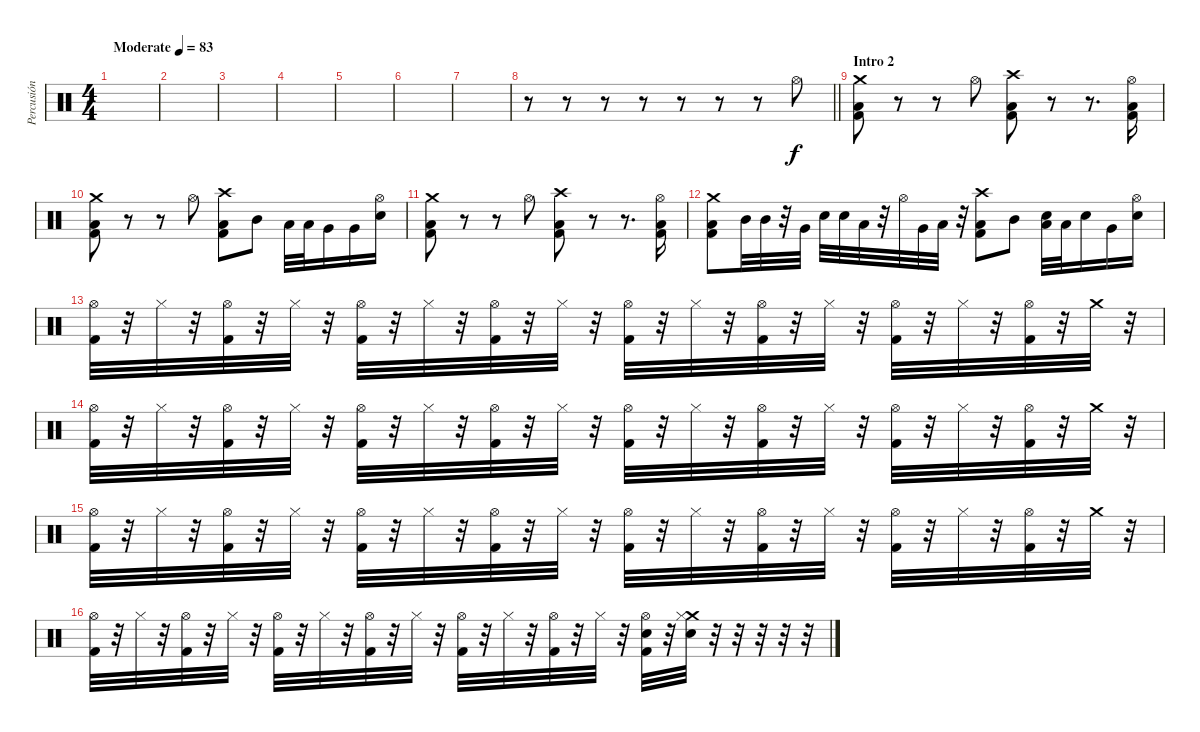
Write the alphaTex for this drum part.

\track ("Percusión" "Percusión") {instrument percussion}
\staff {score}
\articulation defaults
\ts (4 4)
\tempo (83 "Moderate")
\clef neutral
\ks c
|
|
|
|
|
|
|
\barLineRight lightlight
r.8 r.8 r.8 r.8 r.8 r.8 r.8 "Hi-Hat (open)".8 |
\section ("" "Intro 2")
("Crash medium (hit)" "Low Floor Tom (hit)" "Kick (hit) 2").8 r.8 r.8 "Hi-Hat (open)".8 ("Crash high (hit)" "Low Floor Tom (hit)" "Kick (hit) 2").8 r.8 r.8{d} ("Hi-Hat (open)" "Low Floor Tom (hit)" "Kick (hit) 2").16 |
("Crash medium (hit)" "Low Floor Tom (hit)" "Kick (hit) 2").8 r.8 r.8 "Hi-Hat (open)".8 ("Crash high (hit)" "Low Floor Tom (hit)" "Kick (hit) 2").8 "Mid Tom (hit)".8 "Low Tom (hit)".32 "Low Tom (hit)".32 "Very Low Tom (hit)".16 "Very Low Tom (hit)".16 ("Hi-Hat (open)" "Snare (hit) 2").16 |
("Crash medium (hit)" "Low Floor Tom (hit)" "Kick (hit) 2").8 r.8 r.8 "Hi-Hat (open)".8 ("Crash high (hit)" "Low Floor Tom (hit)" "Kick (hit) 2").8 r.8 r.8{d} ("Hi-Hat (open)" "Low Floor Tom (hit)" "Kick (hit) 2").16 |
("Crash medium (hit)" "Low Floor Tom (hit)" "Kick (hit) 2").8 "Mid Tom (hit)".32 "Mid Tom (hit)".32 r.32 "Very Low Tom (hit)".32 "Snare (hit) 2".32 "Snare (hit) 2".32 "Low Tom (hit)".32 r.32 "Hi-Hat (open)".32 "Very Low Tom (hit)".32 "Low Floor Tom (hit)".32 r.32 ("Crash high (hit)" "Low Floor Tom (hit)" "Kick (hit) 2").8 "Mid Tom (hit)".8 ("Low Tom (hit)" "Snare (hit) 2").32 "Low Tom (hit)".32 "Snare (hit) 2".16 "Very Low Tom (hit)".16 ("Hi-Hat (open)" "Snare (hit) 2").16 |
("Hi-Hat (open)" "Kick (hit) 2").32 r.32 "Hi-Hat (closed)".32 r.32 ("Hi-Hat (open)" "Kick (hit) 2").32 r.32 "Hi-Hat (closed)".32 r.32 ("Hi-Hat (open)" "Kick (hit) 2").32 r.32 "Hi-Hat (closed)".32 r.32 ("Hi-Hat (open)" "Kick (hit) 2").32 r.32 "Hi-Hat (closed)".32 r.32 ("Hi-Hat (open)" "Kick (hit) 2").32 r.32 "Hi-Hat (closed)".32 r.32 ("Hi-Hat (open)" "Kick (hit) 2").32 r.32 "Hi-Hat (closed)".32 r.32 ("Hi-Hat (open)" "Kick (hit) 2").32 r.32 "Hi-Hat (closed)".32 r.32 ("Hi-Hat (open)" "Kick (hit) 2").32 r.32 "Crash medium (hit)".32 r.32 |
("Hi-Hat (open)" "Kick (hit) 2").32 r.32 "Hi-Hat (closed)".32 r.32 ("Hi-Hat (open)" "Kick (hit) 2").32 r.32 "Hi-Hat (closed)".32 r.32 ("Hi-Hat (open)" "Kick (hit) 2").32 r.32 "Hi-Hat (closed)".32 r.32 ("Hi-Hat (open)" "Kick (hit) 2").32 r.32 "Hi-Hat (closed)".32 r.32 ("Hi-Hat (open)" "Kick (hit) 2").32 r.32 "Hi-Hat (closed)".32 r.32 ("Hi-Hat (open)" "Kick (hit) 2").32 r.32 "Hi-Hat (closed)".32 r.32 ("Hi-Hat (open)" "Kick (hit) 2").32 r.32 "Hi-Hat (closed)".32 r.32 ("Hi-Hat (open)" "Kick (hit) 2").32 r.32 "Crash medium (hit)".32 r.32 |
("Hi-Hat (open)" "Kick (hit) 2").32 r.32 "Hi-Hat (closed)".32 r.32 ("Hi-Hat (open)" "Kick (hit) 2").32 r.32 "Hi-Hat (closed)".32 r.32 ("Hi-Hat (open)" "Kick (hit) 2").32 r.32 "Hi-Hat (closed)".32 r.32 ("Hi-Hat (open)" "Kick (hit) 2").32 r.32 "Hi-Hat (closed)".32 r.32 ("Hi-Hat (open)" "Kick (hit) 2").32 r.32 "Hi-Hat (closed)".32 r.32 ("Hi-Hat (open)" "Kick (hit) 2").32 r.32 "Hi-Hat (closed)".32 r.32 ("Hi-Hat (open)" "Kick (hit) 2").32 r.32 "Hi-Hat (closed)".32 r.32 ("Hi-Hat (open)" "Kick (hit) 2").32 r.32 "Crash medium (hit)".32 r.32 |
("Hi-Hat (open)" "Kick (hit) 2").32 r.32 "Hi-Hat (closed)".32 r.32 ("Hi-Hat (open)" "Kick (hit) 2").32 r.32 "Hi-Hat (closed)".32 r.32 ("Hi-Hat (open)" "Kick (hit) 2").32 r.32 "Hi-Hat (closed)".32 r.32 ("Hi-Hat (open)" "Kick (hit) 2").32 r.32 "Hi-Hat (closed)".32 r.32 ("Hi-Hat (open)" "Kick (hit) 2").32 r.32 "Hi-Hat (closed)".32 r.32 ("Hi-Hat (open)" "Kick (hit) 2").32 r.32 "Hi-Hat (closed)".32 r.32 ("Hi-Hat (open)" "Snare (hit) 2" "Kick (hit) 2").32 r.32 ("Crash medium (hit)" "Hi-Hat (closed)" "Snare (hit) 2").32 r.32 r.32 r.32 r.32 r.32
